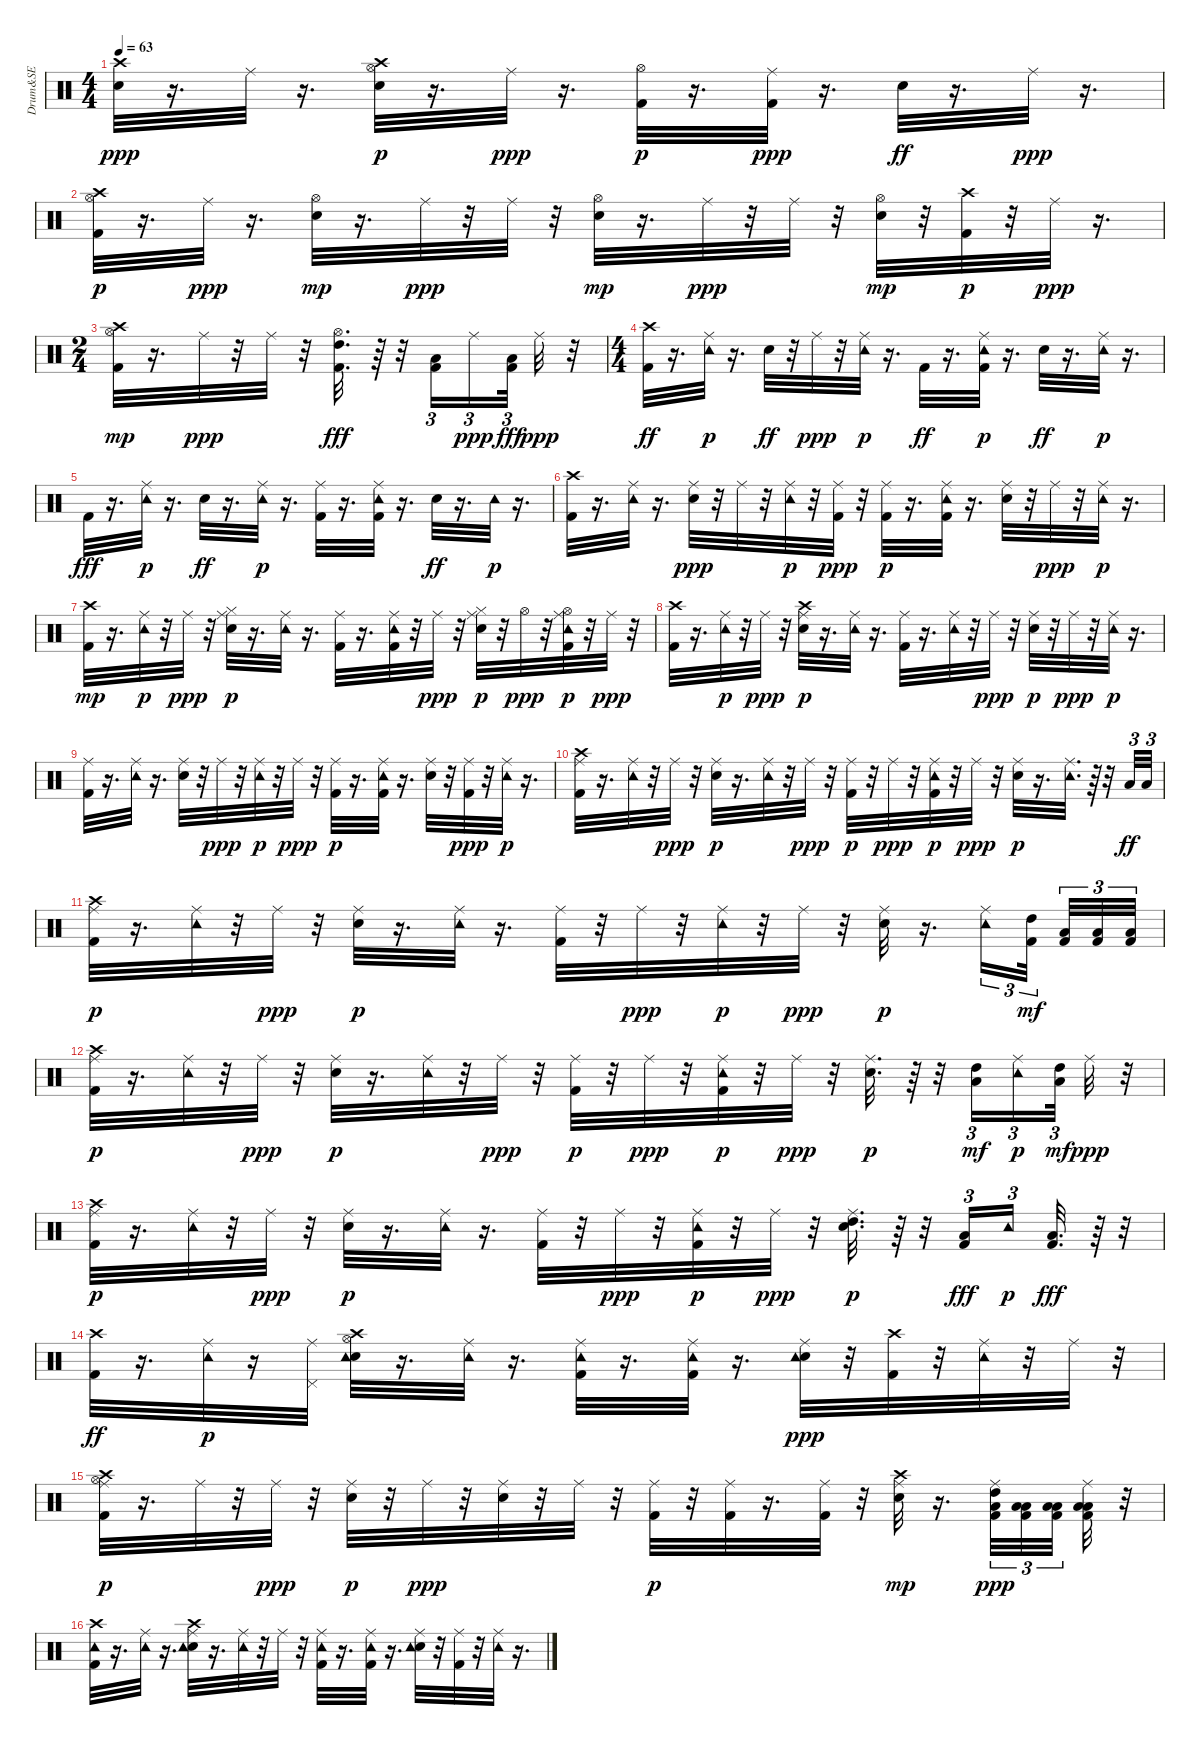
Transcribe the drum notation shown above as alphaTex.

\track ("Drum&SE" "Drum&SE") {instrument percussion}
\staff {score}
\articulation defaults
\ts (4 4)
\tempo 63
\clef neutral
\ks c
("Snare (hit) 2" "Crash high (hit)").32{dy ppp} r.16{d} "Ride (middle)".32 r.16{d} ("Snare (hit) 2" "Hi-Hat (open)" "Crash high (hit)").32{dy p} r.16{d} "Ride (middle)".32{dy ppp} r.16{d} ("Kick (hit) 2" "Hi-Hat (open)").32{dy p} r.16{d} ("Kick (hit) 2" "Ride (middle)").32{dy ppp} r.16{d} "Snare (hit) 2".32{dy ff} r.16{d} "Ride (middle)".32{dy ppp} r.16{d} |
("Kick (hit) 2" "Hi-Hat (open)" "Crash high (hit)").32{dy p} r.16{d} "Ride (middle)".32{dy ppp} r.16{d} ("Snare (hit) 2" "Hi-Hat (open)").32{dy mp} r.16{d} "Ride (middle)".32{dy ppp} r.32 "Ride (middle)".32 r.32 ("Snare (hit) 2" "Hi-Hat (open)").32{dy mp} r.16{d} "Ride (middle)".32{dy ppp} r.32 "Ride (middle)".32 r.32 ("Snare (hit) 2" "Hi-Hat (open)").32{dy mp} r.32 ("Kick (hit) 2" "Crash high (hit)").32{dy p} r.32 "Ride (middle)".32{dy ppp} r.16{d} |
\ts (2 4)
("Kick (hit) 2" "Hi-Hat (open)" "Crash high (hit)").32{dy mp} r.16{d} "Ride (middle)".32{dy ppp} r.32 "Ride (middle)".32 r.32 ("Kick (hit) 2" "Hi-Hat (open)" "High Tom (hit)").32{d dy fff} r.64 r.32 ("Kick (hit) 2" "Low Tom (hit)").16{tu (3 2)} "Ride (middle)".16{tu (3 2) dy ppp} ("Kick (hit) 2" "Low Floor Tom (hit)").32{tu (3 2) dy fff} "Ride (middle)".32{dy ppp} r.32 |
\ts (4 4)
("Kick (hit) 2" "Crash high (hit)").32{dy ff} r.16{d} ("Ride (middle)" "Tambourine (hit)").32{dy p} r.16{d} "Snare (hit) 2".32{dy ff} r.32 "Ride (middle)".32{dy ppp} r.32 ("Ride (middle)" "Tambourine (hit)").32{dy p} r.16{d} "Kick (hit) 2".32{dy ff} r.16{d} ("Kick (hit) 2" "Ride (middle)" "Tambourine (hit)").32{dy p} r.16{d} "Snare (hit) 2".32{dy ff} r.16{d} ("Ride (middle)" "Tambourine (hit)").32{dy p} r.16{d} |
"Kick (hit) 2".32{dy fff} r.16{d} ("Ride (middle)" "Tambourine (hit)").32{dy p} r.16{d} "Snare (hit) 2".32{dy ff} r.16{d} ("Ride (middle)" "Tambourine (hit)").32{dy p} r.16{d} ("Kick (hit) 2" "Ride (middle)").32 r.16{d} ("Kick (hit) 2" "Ride (middle)" "Tambourine (hit)").32 r.16{d} "Snare (hit) 2".32{dy ff} r.16{d} "Tambourine (hit)".32{dy p} r.16{d} |
("Kick (hit) 2" "Crash high (hit)").32 r.16{d} ("Ride (middle)" "Tambourine (hit)").32 r.16{d} ("Snare (hit) 2" "Ride (middle)").32{dy ppp} r.32 "Ride (middle)".32 r.32 ("Ride (middle)" "Tambourine (hit)").32{dy p} r.32 ("Kick (hit) 2" "Ride (middle)").32{dy ppp} r.32 ("Kick (hit) 2" "Ride (middle)").32{dy p} r.16{d} ("Ride (middle)" "Kick (hit) 2" "Tambourine (hit)").32 r.16{d} ("Snare (hit) 2" "Ride (middle)").32 r.32 "Ride (middle)".32{dy ppp} r.32 ("Ride (middle)" "Tambourine (hit)").32{dy p} r.16{d} |
("Kick (hit) 2" "Crash high (hit)").32{dy mp} r.16{d} ("Ride (middle)" "Tambourine (hit)").32{dy p} r.32 "Ride (middle)".32{dy ppp} r.32 ("Snare (hit) 2" "Hi-Hat (closed)" "Ride (middle)").32{dy p} r.16{d} ("Ride (middle)" "Tambourine (hit)").32 r.16{d} ("Kick (hit) 2" "Ride (middle)").32 r.16{d} ("Kick (hit) 2" "Ride (middle)" "Tambourine (hit)").32 r.32 "Ride (middle)".32{dy ppp} r.32 ("Snare (hit) 2" "Hi-Hat (closed)" "Ride (middle)").32{dy p} r.32 "Hi-Hat (open)".32{dy ppp} r.32 ("Kick (hit) 2" "Ride (middle)" "Hi-Hat (open)" "Tambourine (hit)").32{dy p} r.32 "Ride (middle)".32{dy ppp} r.32 |
("Kick (hit) 2" "Crash high (hit)").32 r.16{d} ("Ride (middle)" "Tambourine (hit)").32{dy p} r.32 "Ride (middle)".32{dy ppp} r.32 ("Snare (hit) 2" "Crash high (hit)" "Ride (middle)").32{dy p} r.16{d} ("Ride (middle)" "Tambourine (hit)").32 r.16{d} ("Kick (hit) 2" "Ride (middle)").32 r.16{d} ("Ride (middle)" "Tambourine (hit)").32 r.32 "Ride (middle)".32{dy ppp} r.32 ("Snare (hit) 2" "Ride (middle)").32{dy p} r.32 "Ride (middle)".32{dy ppp} r.32 ("Ride (middle)" "Tambourine (hit)").32{dy p} r.16{d} |
("Kick (hit) 2" "Ride (middle)").32 r.16{d} ("Ride (middle)" "Tambourine (hit)").32 r.16{d} ("Snare (hit) 2" "Ride (middle)").32 r.32 "Ride (middle)".32{dy ppp} r.32 ("Ride (middle)" "Tambourine (hit)").32{dy p} r.32 "Ride (middle)".32{dy ppp} r.32 ("Kick (hit) 2" "Ride (middle)").32{dy p} r.16{d} ("Kick (hit) 2" "Ride (middle)" "Tambourine (hit)").32 r.16{d} ("Snare (hit) 2" "Ride (middle)").32 r.32 ("Kick (hit) 2" "Ride (middle)").32{dy ppp} r.32 ("Ride (middle)" "Tambourine (hit)").32{dy p} r.16{d} |
("Kick (hit) 2" "Crash high (hit)" "Ride (middle)").32 r.16{d} ("Ride (middle)" "Tambourine (hit)").32 r.32 "Ride (middle)".32{dy ppp} r.32 ("Snare (hit) 2" "Ride (middle)").32{dy p} r.16{d} ("Ride (middle)" "Tambourine (hit)").32 r.32 "Ride (middle)".32{dy ppp} r.32 ("Kick (hit) 2" "Ride (middle)").32{dy p} r.32 "Ride (middle)".32{dy ppp} r.32 ("Kick (hit) 2" "Ride (middle)" "Tambourine (hit)").32{dy p} r.32 "Ride (middle)".32{dy ppp} r.32 ("Snare (hit) 2" "Ride (middle)").32{dy p} r.16{d} ("Ride (middle)" "Tambourine (hit)").32{d} r.64 r.32 "Low Tom (hit)".32{tu (3 2) dy ff} "Low Floor Tom (hit)".32{tu (3 2)} |
("Kick (hit) 2" "Crash high (hit)" "Ride (middle)").32{dy p} r.16{d} ("Ride (middle)" "Tambourine (hit)").32 r.32 "Ride (middle)".32{dy ppp} r.32 ("Snare (hit) 2" "Ride (middle)").32{dy p} r.16{d} ("Ride (middle)" "Tambourine (hit)").32 r.16{d} ("Kick (hit) 2" "Ride (middle)").32 r.32 "Ride (middle)".32{dy ppp} r.32 ("Ride (middle)" "Tambourine (hit)").32{dy p} r.32 "Ride (middle)".32{dy ppp} r.32 ("Snare (hit) 2" "Ride (middle)").32{dy p} r.16{d} ("Ride (middle)" "Tambourine (hit)").16{tu (3 2)} ("Kick (hit) 2" "High Tom (hit)").32{tu (3 2) dy mf beam splitsecondary} ("Kick (hit) 2" "Low Tom (hit)").32{tu (3 2)} ("Kick (hit) 2" "Low Tom (hit)").32{tu (3 2)} ("Kick (hit) 2" "Low Floor Tom (hit)").32{tu (3 2)} |
("Kick (hit) 2" "Crash high (hit)" "Ride (middle)").32{dy p} r.16{d} ("Ride (middle)" "Tambourine (hit)").32 r.32 "Ride (middle)".32{dy ppp} r.32 ("Snare (hit) 2" "Ride (middle)").32{dy p} r.16{d} ("Ride (middle)" "Tambourine (hit)").32 r.32 "Ride (middle)".32{dy ppp} r.32 ("Kick (hit) 2" "Ride (middle)").32{dy p} r.32 "Ride (middle)".32{dy ppp} r.32 ("Kick (hit) 2" "Ride (middle)" "Tambourine (hit)").32{dy p} r.32 "Ride (middle)".32{dy ppp} r.32 ("Snare (hit) 2" "Ride (middle)").32{d dy p} r.64 r.32 ("Low Tom (hit)" "High Tom (hit)").16{tu (3 2) dy mf} ("Ride (middle)" "Tambourine (hit)").16{tu (3 2) dy p} ("Low Tom (hit)" "High Tom (hit)").32{tu (3 2) dy mf} "Ride (middle)".32{dy ppp} r.32 |
("Kick (hit) 2" "Crash high (hit)" "Ride (middle)").32{dy p} r.16{d} ("Ride (middle)" "Tambourine (hit)").32 r.32 "Ride (middle)".32{dy ppp} r.32 ("Snare (hit) 2" "Ride (middle)").32{dy p} r.16{d} ("Ride (middle)" "Tambourine (hit)").32 r.16{d} ("Kick (hit) 2" "Ride (middle)").32 r.32 "Ride (middle)".32{dy ppp} r.32 ("Kick (hit) 2" "Ride (middle)" "Tambourine (hit)").32{dy p} r.32 "Ride (middle)".32{dy ppp} r.32 ("Snare (hit) 2" "High Tom (hit)" "Ride (middle)").32{d dy p} r.64 r.32 ("Kick (hit) 2" "Low Tom (hit)").16{tu (3 2) dy fff} "Tambourine (hit)".16{tu (3 2) dy p beam splitsecondary} ("Kick (hit) 2" "Low Floor Tom (hit)").32{d dy fff} r.64 r.32 |
("Kick (hit) 2" "Crash high (hit)").32{dy ff} r.16{d} ("Ride (middle)" "Tambourine (hit)").32{dy p} r.16 ("Pedal Hi-Hat (hit)" "Ride (middle)").32 ("Snare (hit) 2" "Hi-Hat (open)" "Crash high (hit)" "Tambourine (hit)").32 r.16{d} ("Ride (middle)" "Tambourine (hit)").32 r.16{d} ("Kick (hit) 2" "Ride (middle)" "Tambourine (hit)").32 r.16{d} ("Kick (hit) 2" "Ride (middle)" "Tambourine (hit)").32 r.16{d} ("Snare (hit) 2" "Ride (middle)" "Tambourine (hit)").32{dy ppp} r.32 ("Kick (hit) 2" "Crash high (hit)").32 r.32 ("Ride (middle)" "Tambourine (hit)").32 r.32 "Ride (middle)".32 r.32 |
("Kick (hit) 2" "Hi-Hat (open)" "Crash high (hit)" "Ride (middle)").32{dy p} r.16{d} "Ride (middle)".32 r.32 "Ride (middle)".32{dy ppp} r.32 ("Snare (hit) 2" "Ride (middle)").32{dy p} r.32 "Ride (middle)".32{dy ppp} r.32 ("Snare (hit) 2" "Ride (middle)").32 r.32 "Ride (middle)".32 r.32 ("Kick (hit) 2" "Ride (middle)").32{dy p} r.32 ("Kick (hit) 2" "Ride (middle)").32 r.16{d} ("Kick (hit) 2" "Ride (middle)").32 r.32 ("Snare (hit) 2" "Crash high (hit)" "Ride (middle)").32{dy mp} r.16{d} ("High Tom (hit)" "Kick (hit) 2" "Low Floor Tom (hit)" "Ride (middle)").32{tu (3 2) dy ppp} ("Kick (hit) 2" "Low Floor Tom (hit)" "Low Tom (hit)").32{tu (3 2)} ("Kick (hit) 2" "Low Floor Tom (hit)" "Low Tom (hit)").32{tu (3 2) beam splitsecondary} ("Low Floor Tom (hit)" "Kick (hit) 2" "Low Floor Tom (hit)" "Ride (middle)").32 r.32 |
("Kick (hit) 2" "Crash high (hit)" "Tambourine (hit)").32 r.16{d} ("Ride (middle)" "Tambourine (hit)").32 r.16{d} ("Snare (hit) 2" "Crash high (hit)" "Ride (middle)" "Tambourine (hit)").32 r.16{d} ("Ride (middle)" "Tambourine (hit)").32 r.32 "Ride (middle)".32 r.32 ("Kick (hit) 2" "Ride (middle)" "Tambourine (hit)").32 r.16{d} ("Kick (hit) 2" "Ride (middle)" "Tambourine (hit)").32 r.16{d} ("Snare (hit) 2" "Ride (middle)" "Tambourine (hit)").32 r.32 ("Kick (hit) 2" "Ride (middle)").32 r.32 ("Ride (middle)" "Tambourine (hit)").32 r.16{d}
